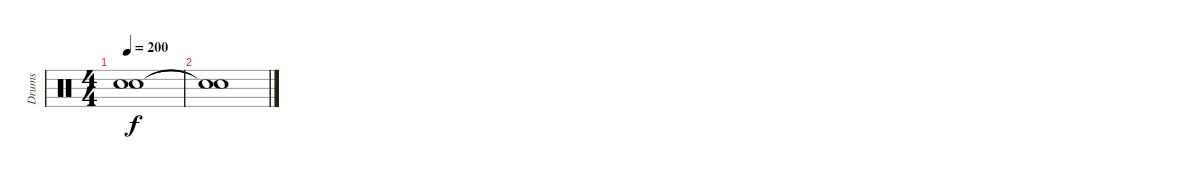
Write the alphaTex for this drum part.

\track ("Drums" "Drums") {instrument percussion}
\staff {score}
\articulation defaults
\ts (4 4)
\tempo 200
\clef neutral
\ks c
("Snare (hit)"{t} "Snare (hit)"{t}).1{dy f} |
("Snare (hit)"{t} "Snare (hit)"{t}).1
